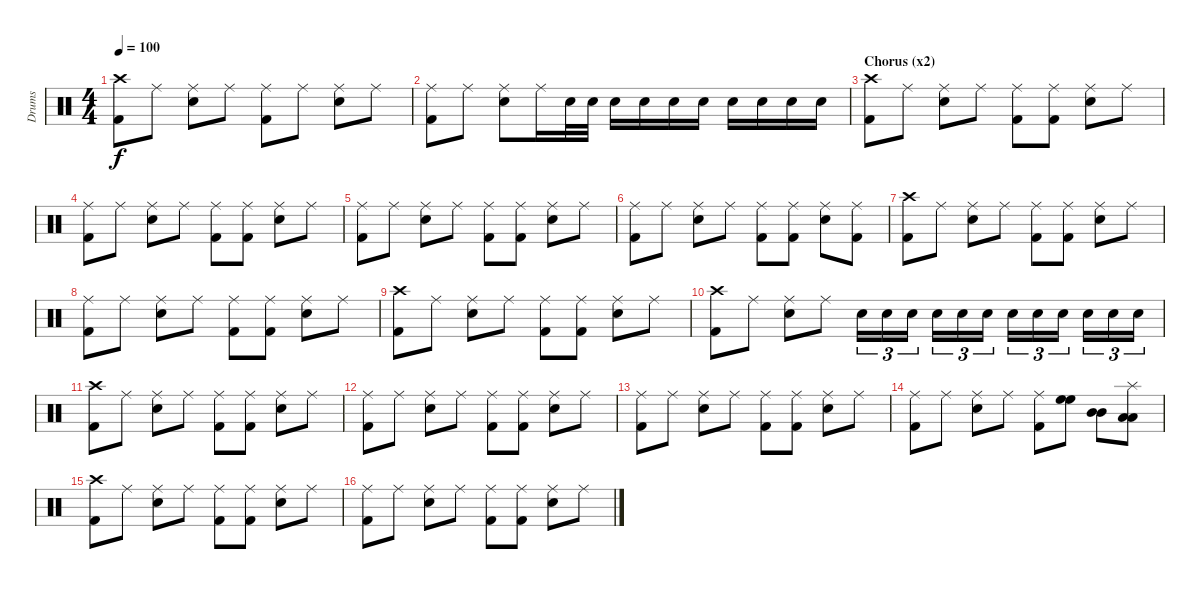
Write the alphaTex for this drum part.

\track ("Drums" "Drums") {instrument percussion}
\staff {score}
\articulation defaults
\ts (4 4)
\tempo 100
\clef neutral
\ks c
("Crash high (hit)" "Kick (hit) 2").8{dy f} "Ride (middle)".8 ("Ride (middle)" "Snare (hit) 2").8 "Ride (middle)".8 ("Ride (middle)" "Kick (hit) 2").8 "Ride (middle)".8 ("Ride (middle)" "Snare (hit) 2").8 "Ride (middle)".8 |
("Ride (middle)" "Kick (hit) 2").8 "Ride (middle)".8 ("Ride (middle)" "Snare (hit) 2").8 "Ride (middle)".16 "Snare (hit) 2".32 "Snare (hit) 2".32 "Snare (hit) 2".16 "Snare (hit) 2".16 "Snare (hit) 2".16 "Snare (hit) 2".16 "Snare (hit) 2".16 "Snare (hit) 2".16 "Snare (hit) 2".16 "Snare (hit) 2".16 |
\section ("" "Chorus (x2)")
("Crash high (hit)" "Kick (hit) 2").8 "Ride (middle)".8 ("Ride (middle)" "Snare (hit) 2").8 "Ride (middle)".8 ("Ride (middle)" "Kick (hit) 2").8 ("Ride (middle)" "Kick (hit) 2").8 ("Ride (middle)" "Snare (hit) 2").8 "Ride (middle)".8 |
("Ride (middle)" "Kick (hit) 2").8 "Ride (middle)".8 ("Ride (middle)" "Snare (hit) 2").8 "Ride (middle)".8 ("Ride (middle)" "Kick (hit) 2").8 ("Ride (middle)" "Kick (hit) 2").8 ("Ride (middle)" "Snare (hit) 2").8 "Ride (middle)".8 |
("Ride (middle)" "Kick (hit) 2").8 "Ride (middle)".8 ("Ride (middle)" "Snare (hit) 2").8 "Ride (middle)".8 ("Ride (middle)" "Kick (hit) 2").8 ("Ride (middle)" "Kick (hit) 2").8 ("Ride (middle)" "Snare (hit) 2").8 "Ride (middle)".8 |
("Ride (middle)" "Kick (hit) 2").8 "Ride (middle)".8 ("Ride (middle)" "Snare (hit) 2").8 "Ride (middle)".8 ("Ride (middle)" "Kick (hit) 2").8 ("Ride (middle)" "Kick (hit) 2").8 ("Ride (middle)" "Snare (hit) 2").8 ("Ride (middle)" "Kick (hit) 2").8 |
("Crash high (hit)" "Kick (hit) 2").8 "Ride (middle)".8 ("Ride (middle)" "Snare (hit) 2").8 "Ride (middle)".8 ("Ride (middle)" "Kick (hit) 2").8 ("Ride (middle)" "Kick (hit) 2").8 ("Ride (middle)" "Snare (hit) 2").8 "Ride (middle)".8 |
("Ride (middle)" "Kick (hit) 2").8 "Ride (middle)".8 ("Ride (middle)" "Snare (hit) 2").8 "Ride (middle)".8 ("Ride (middle)" "Kick (hit) 2").8 ("Ride (middle)" "Kick (hit) 2").8 ("Ride (middle)" "Snare (hit) 2").8 "Ride (middle)".8 |
("Crash high (hit)" "Kick (hit) 2").8 "Ride (middle)".8 ("Ride (middle)" "Snare (hit) 2").8 "Ride (middle)".8 ("Ride (middle)" "Kick (hit) 2").8 ("Ride (middle)" "Kick (hit) 2").8 ("Ride (middle)" "Snare (hit) 2").8 "Ride (middle)".8 |
("Crash high (hit)" "Kick (hit) 2").8 "Ride (middle)".8 ("Ride (middle)" "Snare (hit) 2").8 "Ride (middle)".8 "Snare (hit) 2".16{tu (3 2)} "Snare (hit) 2".16{tu (3 2)} "Snare (hit) 2".16{tu (3 2)} "Snare (hit) 2".16{tu (3 2)} "Snare (hit) 2".16{tu (3 2)} "Snare (hit) 2".16{tu (3 2)} "Snare (hit) 2".16{tu (3 2)} "Snare (hit) 2".16{tu (3 2)} "Snare (hit) 2".16{tu (3 2)} "Snare (hit) 2".16{tu (3 2)} "Snare (hit) 2".16{tu (3 2)} "Snare (hit) 2".16{tu (3 2)} |
("Crash high (hit)" "Kick (hit) 2").8 "Ride (middle)".8 ("Ride (middle)" "Snare (hit) 2").8 "Ride (middle)".8 ("Ride (middle)" "Kick (hit) 2").8 ("Ride (middle)" "Kick (hit) 2").8 ("Ride (middle)" "Snare (hit) 2").8 "Ride (middle)".8 |
("Ride (middle)" "Kick (hit) 2").8 "Ride (middle)".8 ("Ride (middle)" "Snare (hit) 2").8 "Ride (middle)".8 ("Ride (middle)" "Kick (hit) 2").8 ("Ride (middle)" "Kick (hit) 2").8 ("Ride (middle)" "Snare (hit) 2").8 "Ride (middle)".8 |
("Ride (middle)" "Kick (hit) 2").8 "Ride (middle)".8 ("Ride (middle)" "Snare (hit) 2").8 "Ride (middle)".8 ("Ride (middle)" "Kick (hit) 2").8 ("Ride (middle)" "Kick (hit) 2").8 ("Ride (middle)" "Snare (hit) 2").8 "Ride (middle)".8 |
("Ride (middle)" "Kick (hit) 2").8 "Ride (middle)".8 ("Ride (middle)" "Snare (hit) 2").8 "Ride (middle)".8 ("Ride (middle)" "Kick (hit) 2").8 ("High Floor Tom (hit)" "High Floor Tom (hit)").8 ("Mid Tom (hit)" "Mid Tom (hit)").8 ("Splash (hit)" "Low Tom (hit)" "Low Tom (hit)").8 |
("Crash high (hit)" "Kick (hit) 2").8 "Ride (middle)".8 ("Ride (middle)" "Snare (hit) 2").8 "Ride (middle)".8 ("Ride (middle)" "Kick (hit) 2").8 ("Ride (middle)" "Kick (hit) 2").8 ("Ride (middle)" "Snare (hit) 2").8 "Ride (middle)".8 |
("Ride (middle)" "Kick (hit) 2").8 "Ride (middle)".8 ("Ride (middle)" "Snare (hit) 2").8 "Ride (middle)".8 ("Ride (middle)" "Kick (hit) 2").8 ("Ride (middle)" "Kick (hit) 2").8 ("Ride (middle)" "Snare (hit) 2").8 "Ride (middle)".8
